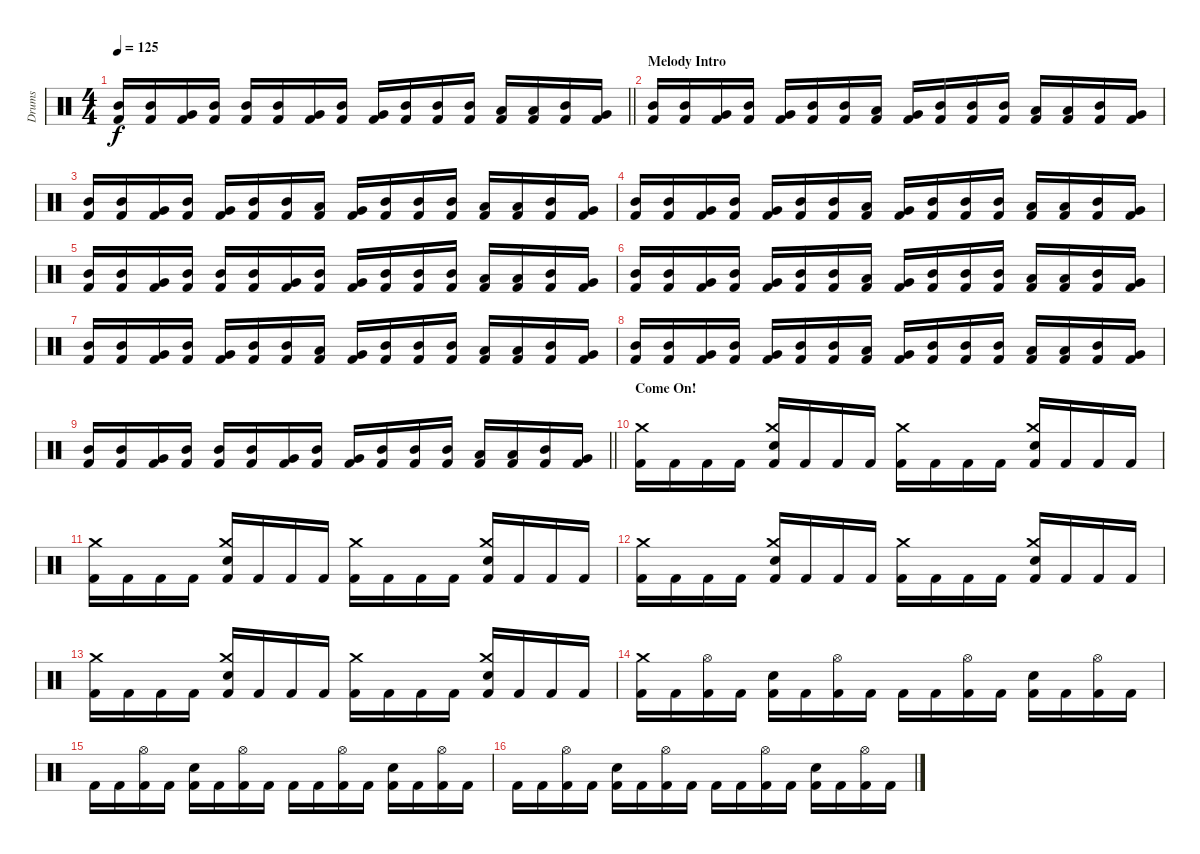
\track ("Drums" "Drums") {instrument percussion}
\staff {score}
\articulation defaults
\ts (4 4)
\tempo 125
\clef neutral
\barLineRight lightlight
\ks c
("Mid Tom (hit)" "Kick (hit) 2").16{dy f} ("Mid Tom (hit)" "Kick (hit) 2").16 ("Very Low Tom (hit)" "Kick (hit) 2").16 ("Mid Tom (hit)" "Kick (hit) 2").16 ("Mid Tom (hit)" "Kick (hit) 2").16 ("Mid Tom (hit)" "Kick (hit) 2").16 ("Very Low Tom (hit)" "Kick (hit) 2").16 ("Mid Tom (hit)" "Kick (hit) 2").16 ("Very Low Tom (hit)" "Kick (hit) 2").16 ("Mid Tom (hit)" "Kick (hit) 2").16 ("Mid Tom (hit)" "Kick (hit) 2").16 ("Mid Tom (hit)" "Kick (hit) 2").16 ("Low Tom (hit)" "Kick (hit) 2").16 ("Low Tom (hit)" "Kick (hit) 2").16 ("Mid Tom (hit)" "Kick (hit) 2").16 ("Very Low Tom (hit)" "Kick (hit) 2").16 |
\section ("" "Melody Intro")
("Mid Tom (hit)" "Kick (hit) 2").16 ("Mid Tom (hit)" "Kick (hit) 2").16 ("Very Low Tom (hit)" "Kick (hit) 2").16 ("Mid Tom (hit)" "Kick (hit) 2").16 ("Very Low Tom (hit)" "Kick (hit) 2").16 ("Mid Tom (hit)" "Kick (hit) 2").16 ("Mid Tom (hit)" "Kick (hit) 2").16 ("Low Tom (hit)" "Kick (hit) 2").16 ("Very Low Tom (hit)" "Kick (hit) 2").16 ("Mid Tom (hit)" "Kick (hit) 2").16 ("Mid Tom (hit)" "Kick (hit) 2").16 ("Mid Tom (hit)" "Kick (hit) 2").16 ("Low Tom (hit)" "Kick (hit) 2").16 ("Low Tom (hit)" "Kick (hit) 2").16 ("Mid Tom (hit)" "Kick (hit) 2").16 ("Very Low Tom (hit)" "Kick (hit) 2").16 |
("Mid Tom (hit)" "Kick (hit) 2").16 ("Mid Tom (hit)" "Kick (hit) 2").16 ("Very Low Tom (hit)" "Kick (hit) 2").16 ("Mid Tom (hit)" "Kick (hit) 2").16 ("Very Low Tom (hit)" "Kick (hit) 2").16 ("Mid Tom (hit)" "Kick (hit) 2").16 ("Mid Tom (hit)" "Kick (hit) 2").16 ("Low Tom (hit)" "Kick (hit) 2").16 ("Very Low Tom (hit)" "Kick (hit) 2").16 ("Mid Tom (hit)" "Kick (hit) 2").16 ("Mid Tom (hit)" "Kick (hit) 2").16 ("Mid Tom (hit)" "Kick (hit) 2").16 ("Low Tom (hit)" "Kick (hit) 2").16 ("Low Tom (hit)" "Kick (hit) 2").16 ("Mid Tom (hit)" "Kick (hit) 2").16 ("Very Low Tom (hit)" "Kick (hit) 2").16 |
("Mid Tom (hit)" "Kick (hit) 2").16 ("Mid Tom (hit)" "Kick (hit) 2").16 ("Very Low Tom (hit)" "Kick (hit) 2").16 ("Mid Tom (hit)" "Kick (hit) 2").16 ("Very Low Tom (hit)" "Kick (hit) 2").16 ("Mid Tom (hit)" "Kick (hit) 2").16 ("Mid Tom (hit)" "Kick (hit) 2").16 ("Low Tom (hit)" "Kick (hit) 2").16 ("Very Low Tom (hit)" "Kick (hit) 2").16 ("Mid Tom (hit)" "Kick (hit) 2").16 ("Mid Tom (hit)" "Kick (hit) 2").16 ("Mid Tom (hit)" "Kick (hit) 2").16 ("Low Tom (hit)" "Kick (hit) 2").16 ("Low Tom (hit)" "Kick (hit) 2").16 ("Mid Tom (hit)" "Kick (hit) 2").16 ("Very Low Tom (hit)" "Kick (hit) 2").16 |
("Mid Tom (hit)" "Kick (hit) 2").16 ("Mid Tom (hit)" "Kick (hit) 2").16 ("Very Low Tom (hit)" "Kick (hit) 2").16 ("Mid Tom (hit)" "Kick (hit) 2").16 ("Mid Tom (hit)" "Kick (hit) 2").16 ("Mid Tom (hit)" "Kick (hit) 2").16 ("Very Low Tom (hit)" "Kick (hit) 2").16 ("Mid Tom (hit)" "Kick (hit) 2").16 ("Very Low Tom (hit)" "Kick (hit) 2").16 ("Mid Tom (hit)" "Kick (hit) 2").16 ("Mid Tom (hit)" "Kick (hit) 2").16 ("Mid Tom (hit)" "Kick (hit) 2").16 ("Low Tom (hit)" "Kick (hit) 2").16 ("Low Tom (hit)" "Kick (hit) 2").16 ("Mid Tom (hit)" "Kick (hit) 2").16 ("Very Low Tom (hit)" "Kick (hit) 2").16 |
("Mid Tom (hit)" "Kick (hit) 2").16 ("Mid Tom (hit)" "Kick (hit) 2").16 ("Very Low Tom (hit)" "Kick (hit) 2").16 ("Mid Tom (hit)" "Kick (hit) 2").16 ("Very Low Tom (hit)" "Kick (hit) 2").16 ("Mid Tom (hit)" "Kick (hit) 2").16 ("Mid Tom (hit)" "Kick (hit) 2").16 ("Low Tom (hit)" "Kick (hit) 2").16 ("Very Low Tom (hit)" "Kick (hit) 2").16 ("Mid Tom (hit)" "Kick (hit) 2").16 ("Mid Tom (hit)" "Kick (hit) 2").16 ("Mid Tom (hit)" "Kick (hit) 2").16 ("Low Tom (hit)" "Kick (hit) 2").16 ("Low Tom (hit)" "Kick (hit) 2").16 ("Mid Tom (hit)" "Kick (hit) 2").16 ("Very Low Tom (hit)" "Kick (hit) 2").16 |
("Mid Tom (hit)" "Kick (hit) 2").16 ("Mid Tom (hit)" "Kick (hit) 2").16 ("Very Low Tom (hit)" "Kick (hit) 2").16 ("Mid Tom (hit)" "Kick (hit) 2").16 ("Very Low Tom (hit)" "Kick (hit) 2").16 ("Mid Tom (hit)" "Kick (hit) 2").16 ("Mid Tom (hit)" "Kick (hit) 2").16 ("Low Tom (hit)" "Kick (hit) 2").16 ("Very Low Tom (hit)" "Kick (hit) 2").16 ("Mid Tom (hit)" "Kick (hit) 2").16 ("Mid Tom (hit)" "Kick (hit) 2").16 ("Mid Tom (hit)" "Kick (hit) 2").16 ("Low Tom (hit)" "Kick (hit) 2").16 ("Low Tom (hit)" "Kick (hit) 2").16 ("Mid Tom (hit)" "Kick (hit) 2").16 ("Very Low Tom (hit)" "Kick (hit) 2").16 |
("Mid Tom (hit)" "Kick (hit) 2").16 ("Mid Tom (hit)" "Kick (hit) 2").16 ("Very Low Tom (hit)" "Kick (hit) 2").16 ("Mid Tom (hit)" "Kick (hit) 2").16 ("Very Low Tom (hit)" "Kick (hit) 2").16 ("Mid Tom (hit)" "Kick (hit) 2").16 ("Mid Tom (hit)" "Kick (hit) 2").16 ("Low Tom (hit)" "Kick (hit) 2").16 ("Very Low Tom (hit)" "Kick (hit) 2").16 ("Mid Tom (hit)" "Kick (hit) 2").16 ("Mid Tom (hit)" "Kick (hit) 2").16 ("Mid Tom (hit)" "Kick (hit) 2").16 ("Low Tom (hit)" "Kick (hit) 2").16 ("Low Tom (hit)" "Kick (hit) 2").16 ("Mid Tom (hit)" "Kick (hit) 2").16 ("Very Low Tom (hit)" "Kick (hit) 2").16 |
\barLineRight lightlight
("Mid Tom (hit)" "Kick (hit) 2").16 ("Mid Tom (hit)" "Kick (hit) 2").16 ("Very Low Tom (hit)" "Kick (hit) 2").16 ("Mid Tom (hit)" "Kick (hit) 2").16 ("Mid Tom (hit)" "Kick (hit) 2").16 ("Mid Tom (hit)" "Kick (hit) 2").16 ("Very Low Tom (hit)" "Kick (hit) 2").16 ("Mid Tom (hit)" "Kick (hit) 2").16 ("Very Low Tom (hit)" "Kick (hit) 2").16 ("Mid Tom (hit)" "Kick (hit) 2").16 ("Mid Tom (hit)" "Kick (hit) 2").16 ("Mid Tom (hit)" "Kick (hit) 2").16 ("Low Tom (hit)" "Kick (hit) 2").16 ("Low Tom (hit)" "Kick (hit) 2").16 ("Mid Tom (hit)" "Kick (hit) 2").16 ("Very Low Tom (hit)" "Kick (hit) 2").16 |
\section ("" "Come On!")
("Crash medium (hit)" "Kick (hit) 2").16 "Kick (hit) 2".16 "Kick (hit) 2".16 "Kick (hit) 2".16 ("Crash medium (hit)" "Electric Snare (hit)" "Kick (hit) 2").16 "Kick (hit) 2".16 "Kick (hit) 2".16 "Kick (hit) 2".16 ("Crash medium (hit)" "Kick (hit) 2").16 "Kick (hit) 2".16 "Kick (hit) 2".16 "Kick (hit) 2".16 ("Crash medium (hit)" "Electric Snare (hit)" "Kick (hit) 2").16 "Kick (hit) 2".16 "Kick (hit) 2".16 "Kick (hit) 2".16 |
("Crash medium (hit)" "Kick (hit) 2").16 "Kick (hit) 2".16 "Kick (hit) 2".16 "Kick (hit) 2".16 ("Crash medium (hit)" "Electric Snare (hit)" "Kick (hit) 2").16 "Kick (hit) 2".16 "Kick (hit) 2".16 "Kick (hit) 2".16 ("Crash medium (hit)" "Kick (hit) 2").16 "Kick (hit) 2".16 "Kick (hit) 2".16 "Kick (hit) 2".16 ("Crash medium (hit)" "Electric Snare (hit)" "Kick (hit) 2").16 "Kick (hit) 2".16 "Kick (hit) 2".16 "Kick (hit) 2".16 |
("Crash medium (hit)" "Kick (hit) 2").16 "Kick (hit) 2".16 "Kick (hit) 2".16 "Kick (hit) 2".16 ("Crash medium (hit)" "Electric Snare (hit)" "Kick (hit) 2").16 "Kick (hit) 2".16 "Kick (hit) 2".16 "Kick (hit) 2".16 ("Crash medium (hit)" "Kick (hit) 2").16 "Kick (hit) 2".16 "Kick (hit) 2".16 "Kick (hit) 2".16 ("Crash medium (hit)" "Electric Snare (hit)" "Kick (hit) 2").16 "Kick (hit) 2".16 "Kick (hit) 2".16 "Kick (hit) 2".16 |
("Crash medium (hit)" "Kick (hit) 2").16 "Kick (hit) 2".16 "Kick (hit) 2".16 "Kick (hit) 2".16 ("Crash medium (hit)" "Electric Snare (hit)" "Kick (hit) 2").16 "Kick (hit) 2".16 "Kick (hit) 2".16 "Kick (hit) 2".16 ("Crash medium (hit)" "Kick (hit) 2").16 "Kick (hit) 2".16 "Kick (hit) 2".16 "Kick (hit) 2".16 ("Crash medium (hit)" "Electric Snare (hit)" "Kick (hit) 2").16 "Kick (hit) 2".16 "Kick (hit) 2".16 "Kick (hit) 2".16 |
("Crash medium (hit)" "Kick (hit) 2").16 "Kick (hit) 2".16 ("Hi-Hat (open)" "Kick (hit) 2").16 "Kick (hit) 2".16 ("Electric Snare (hit)" "Kick (hit) 2").16 "Kick (hit) 2".16 ("Hi-Hat (open)" "Kick (hit) 2").16 "Kick (hit) 2".16 "Kick (hit) 2".16 "Kick (hit) 2".16 ("Hi-Hat (open)" "Kick (hit) 2").16 "Kick (hit) 2".16 ("Electric Snare (hit)" "Kick (hit) 2").16 "Kick (hit) 2".16 ("Hi-Hat (open)" "Kick (hit) 2").16 "Kick (hit) 2".16 |
"Kick (hit) 2".16 "Kick (hit) 2".16 ("Hi-Hat (open)" "Kick (hit) 2").16 "Kick (hit) 2".16 ("Electric Snare (hit)" "Kick (hit) 2").16 "Kick (hit) 2".16 ("Hi-Hat (open)" "Kick (hit) 2").16 "Kick (hit) 2".16 "Kick (hit) 2".16 "Kick (hit) 2".16 ("Hi-Hat (open)" "Kick (hit) 2").16 "Kick (hit) 2".16 ("Electric Snare (hit)" "Kick (hit) 2").16 "Kick (hit) 2".16 ("Hi-Hat (open)" "Kick (hit) 2").16 "Kick (hit) 2".16 |
"Kick (hit) 2".16 "Kick (hit) 2".16 ("Hi-Hat (open)" "Kick (hit) 2").16 "Kick (hit) 2".16 ("Electric Snare (hit)" "Kick (hit) 2").16 "Kick (hit) 2".16 ("Hi-Hat (open)" "Kick (hit) 2").16 "Kick (hit) 2".16 "Kick (hit) 2".16 "Kick (hit) 2".16 ("Hi-Hat (open)" "Kick (hit) 2").16 "Kick (hit) 2".16 ("Electric Snare (hit)" "Kick (hit) 2").16 "Kick (hit) 2".16 ("Hi-Hat (open)" "Kick (hit) 2").16 "Kick (hit) 2".16
